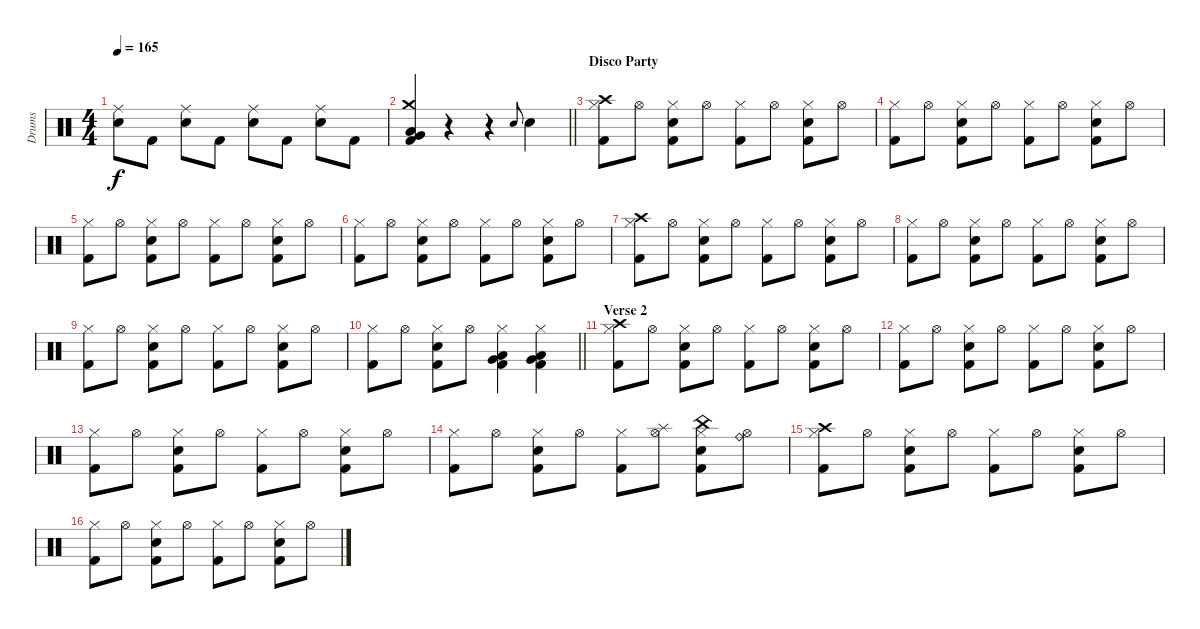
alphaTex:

\track ("Drums" "Drums") {instrument percussion}
\staff {score}
\articulation defaults
\ts (4 4)
\tempo 165
\clef neutral
\ks c
("Ride (middle)" "Snare (hit) 2").8{dy f} "Kick (hit) 2".8 ("Ride (middle)" "Snare (hit) 2").8 "Kick (hit) 2".8 ("Ride (middle)" "Snare (hit) 2").8 "Kick (hit) 2".8 ("Ride (middle)" "Snare (hit) 2").8 "Kick (hit) 2".8 |
\barLineRight lightlight
("Crash medium (hit)" "Very Low Tom (hit)" "Low Floor Tom (hit)" "Kick (hit) 2").4 r.4 r.4 "Snare (hit) 2".8{gr onbeat} "Snare (hit) 2".4 |
\section ("" "Disco Party")
("Crash high (hit)" "Hi-Hat (closed)" "Kick (hit) 2").8 "Hi-Hat (open)".8 ("Hi-Hat (closed)" "Snare (hit) 2" "Kick (hit) 2").8 "Hi-Hat (open)".8 ("Hi-Hat (closed)" "Kick (hit) 2").8 "Hi-Hat (open)".8 ("Hi-Hat (closed)" "Snare (hit) 2" "Kick (hit) 2").8 "Hi-Hat (open)".8 |
("Hi-Hat (closed)" "Kick (hit) 2").8 "Hi-Hat (open)".8 ("Hi-Hat (closed)" "Snare (hit) 2" "Kick (hit) 2").8 "Hi-Hat (open)".8 ("Hi-Hat (closed)" "Kick (hit) 2").8 "Hi-Hat (open)".8 ("Hi-Hat (closed)" "Snare (hit) 2" "Kick (hit) 2").8 "Hi-Hat (open)".8 |
("Hi-Hat (closed)" "Kick (hit) 2").8 "Hi-Hat (open)".8 ("Hi-Hat (closed)" "Snare (hit) 2" "Kick (hit) 2").8 "Hi-Hat (open)".8 ("Hi-Hat (closed)" "Kick (hit) 2").8 "Hi-Hat (open)".8 ("Hi-Hat (closed)" "Snare (hit) 2" "Kick (hit) 2").8 "Hi-Hat (open)".8 |
("Hi-Hat (closed)" "Kick (hit) 2").8 "Hi-Hat (open)".8 ("Hi-Hat (closed)" "Snare (hit) 2" "Kick (hit) 2").8 "Hi-Hat (open)".8 ("Hi-Hat (closed)" "Kick (hit) 2").8 "Hi-Hat (open)".8 ("Hi-Hat (closed)" "Snare (hit) 2" "Kick (hit) 2").8 "Hi-Hat (open)".8 |
("Crash high (hit)" "Hi-Hat (closed)" "Kick (hit) 2").8 "Hi-Hat (open)".8 ("Hi-Hat (closed)" "Snare (hit) 2" "Kick (hit) 2").8 "Hi-Hat (open)".8 ("Hi-Hat (closed)" "Kick (hit) 2").8 "Hi-Hat (open)".8 ("Hi-Hat (closed)" "Snare (hit) 2" "Kick (hit) 2").8 "Hi-Hat (open)".8 |
("Hi-Hat (closed)" "Kick (hit) 2").8 "Hi-Hat (open)".8 ("Hi-Hat (closed)" "Snare (hit) 2" "Kick (hit) 2").8 "Hi-Hat (open)".8 ("Hi-Hat (closed)" "Kick (hit) 2").8 "Hi-Hat (open)".8 ("Hi-Hat (closed)" "Snare (hit) 2" "Kick (hit) 2").8 "Hi-Hat (open)".8 |
("Hi-Hat (closed)" "Kick (hit) 2").8 "Hi-Hat (open)".8 ("Hi-Hat (closed)" "Snare (hit) 2" "Kick (hit) 2").8 "Hi-Hat (open)".8 ("Hi-Hat (closed)" "Kick (hit) 2").8 "Hi-Hat (open)".8 ("Hi-Hat (closed)" "Snare (hit) 2" "Kick (hit) 2").8 "Hi-Hat (open)".8 |
\barLineRight lightlight
("Hi-Hat (closed)" "Kick (hit) 2").8 "Hi-Hat (open)".8 ("Hi-Hat (closed)" "Snare (hit) 2" "Kick (hit) 2").8 "Hi-Hat (open)".8 ("Hi-Hat (closed)" "Very Low Tom (hit)" "Low Floor Tom (hit)" "Kick (hit) 2").4 ("Hi-Hat (closed)" "Very Low Tom (hit)" "Low Floor Tom (hit)" "Kick (hit) 2").4 |
\section ("" "Verse 2")
("Crash high (hit)" "Hi-Hat (closed)" "Kick (hit) 2").8 "Hi-Hat (open)".8 ("Hi-Hat (closed)" "Snare (hit) 2" "Kick (hit) 2").8 "Hi-Hat (open)".8 ("Hi-Hat (closed)" "Kick (hit) 2").8 "Hi-Hat (open)".8 ("Hi-Hat (closed)" "Snare (hit) 2" "Kick (hit) 2").8 "Hi-Hat (open)".8 |
("Hi-Hat (closed)" "Kick (hit) 2").8 "Hi-Hat (open)".8 ("Hi-Hat (closed)" "Snare (hit) 2" "Kick (hit) 2").8 "Hi-Hat (open)".8 ("Hi-Hat (closed)" "Kick (hit) 2").8 "Hi-Hat (open)".8 ("Hi-Hat (closed)" "Snare (hit) 2" "Kick (hit) 2").8 "Hi-Hat (open)".8 |
("Hi-Hat (closed)" "Kick (hit) 2").8 "Hi-Hat (open)".8 ("Hi-Hat (closed)" "Snare (hit) 2" "Kick (hit) 2").8 "Hi-Hat (open)".8 ("Hi-Hat (closed)" "Kick (hit) 2").8 "Hi-Hat (open)".8 ("Hi-Hat (closed)" "Snare (hit) 2" "Kick (hit) 2").8 "Hi-Hat (open)".8 |
("Hi-Hat (closed)" "Kick (hit) 2").8 "Hi-Hat (open)".8 ("Hi-Hat (closed)" "Snare (hit) 2" "Kick (hit) 2").8 "Hi-Hat (open)".8 ("Hi-Hat (closed)" "Kick (hit) 2").8 ("Splash (hit)" "Hi-Hat (open)").8 ("China (hit)" "Hi-Hat (closed)" "Snare (hit) 2" "Kick (hit) 2").8 ("Ride (bell)" "Hi-Hat (open)").8 |
("Crash high (hit)" "Hi-Hat (closed)" "Kick (hit) 2").8 "Hi-Hat (open)".8 ("Hi-Hat (closed)" "Snare (hit) 2" "Kick (hit) 2").8 "Hi-Hat (open)".8 ("Hi-Hat (closed)" "Kick (hit) 2").8 "Hi-Hat (open)".8 ("Hi-Hat (closed)" "Snare (hit) 2" "Kick (hit) 2").8 "Hi-Hat (open)".8 |
("Hi-Hat (closed)" "Kick (hit) 2").8 "Hi-Hat (open)".8 ("Hi-Hat (closed)" "Snare (hit) 2" "Kick (hit) 2").8 "Hi-Hat (open)".8 ("Hi-Hat (closed)" "Kick (hit) 2").8 "Hi-Hat (open)".8 ("Hi-Hat (closed)" "Snare (hit) 2" "Kick (hit) 2").8 "Hi-Hat (open)".8
